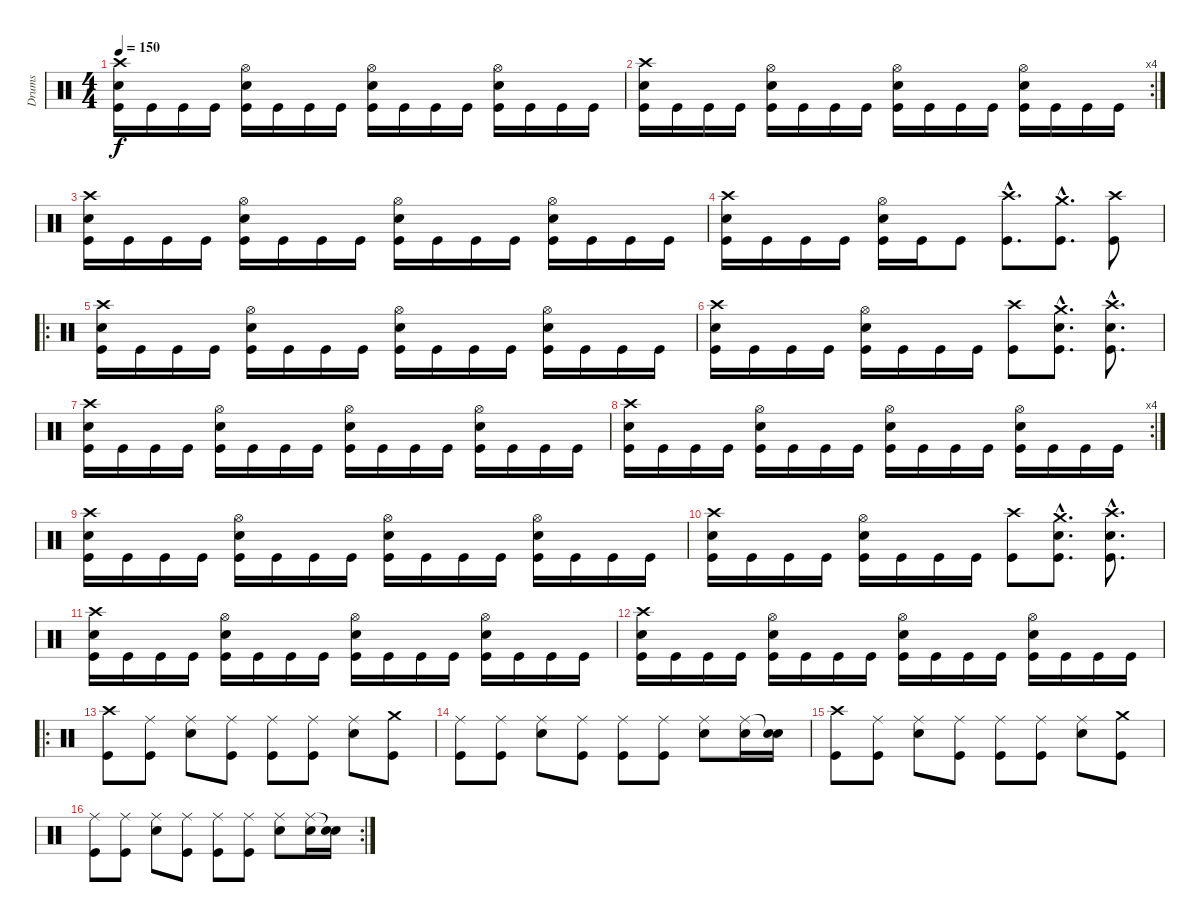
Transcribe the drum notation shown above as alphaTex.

\track ("Drums" "Drums") {instrument percussion}
\staff {score}
\articulation defaults
\ts (4 4)
\tempo 150
\clef neutral
\ks c
("Crash high (hit)" "Snare (hit) 2" "Kick (hit)").16{dy f} "Kick (hit)".16 "Kick (hit)".16 "Kick (hit)".16 ("Hi-Hat (open)" "Snare (hit) 2" "Kick (hit)").16 "Kick (hit)".16 "Kick (hit)".16 "Kick (hit)".16 ("Hi-Hat (open)" "Snare (hit) 2" "Kick (hit)").16 "Kick (hit)".16 "Kick (hit)".16 "Kick (hit)".16 ("Hi-Hat (open)" "Snare (hit) 2" "Kick (hit)").16 "Kick (hit)".16 "Kick (hit)".16 "Kick (hit)".16 |
\rc 4
("Crash high (hit)" "Snare (hit) 2" "Kick (hit)").16 "Kick (hit)".16 "Kick (hit)".16 "Kick (hit)".16 ("Hi-Hat (open)" "Snare (hit) 2" "Kick (hit)").16 "Kick (hit)".16 "Kick (hit)".16 "Kick (hit)".16 ("Hi-Hat (open)" "Snare (hit) 2" "Kick (hit)").16 "Kick (hit)".16 "Kick (hit)".16 "Kick (hit)".16 ("Hi-Hat (open)" "Snare (hit) 2" "Kick (hit)").16 "Kick (hit)".16 "Kick (hit)".16 "Kick (hit)".16 |
("Crash high (hit)" "Snare (hit) 2" "Kick (hit)").16 "Kick (hit)".16 "Kick (hit)".16 "Kick (hit)".16 ("Hi-Hat (open)" "Snare (hit) 2" "Kick (hit)").16 "Kick (hit)".16 "Kick (hit)".16 "Kick (hit)".16 ("Hi-Hat (open)" "Snare (hit) 2" "Kick (hit)").16 "Kick (hit)".16 "Kick (hit)".16 "Kick (hit)".16 ("Hi-Hat (open)" "Snare (hit) 2" "Kick (hit)").16 "Kick (hit)".16 "Kick (hit)".16 "Kick (hit)".16 |
("Crash high (hit)" "Snare (hit) 2" "Kick (hit)").16 "Kick (hit)".16 "Kick (hit)".16 "Kick (hit)".16 ("Hi-Hat (open)" "Snare (hit) 2" "Kick (hit)").16 "Kick (hit)".16 "Kick (hit)".8 ("Crash high (hit)"{hac} "Kick (hit)"{hac}).8{d} ("Crash medium (hit)"{hac} "Kick (hit)"{hac}).8{d} ("Crash high (hit)" "Kick (hit)").8 |
\ro
("Crash high (hit)" "Snare (hit) 2" "Kick (hit)").16 "Kick (hit)".16 "Kick (hit)".16 "Kick (hit)".16 ("Hi-Hat (open)" "Snare (hit) 2" "Kick (hit)").16 "Kick (hit)".16 "Kick (hit)".16 "Kick (hit)".16 ("Hi-Hat (open)" "Snare (hit) 2" "Kick (hit)").16 "Kick (hit)".16 "Kick (hit)".16 "Kick (hit)".16 ("Hi-Hat (open)" "Snare (hit) 2" "Kick (hit)").16 "Kick (hit)".16 "Kick (hit)".16 "Kick (hit)".16 |
("Crash high (hit)" "Snare (hit) 2" "Kick (hit)").16 "Kick (hit)".16 "Kick (hit)".16 "Kick (hit)".16 ("Hi-Hat (open)" "Snare (hit) 2" "Kick (hit)").16 "Kick (hit)".16 "Kick (hit)".16 "Kick (hit)".16 ("Crash high (hit)" "Kick (hit)").8 ("Crash medium (hit)"{hac} "Snare (hit) 2"{hac} "Kick (hit)"{hac}).8{d} ("Crash high (hit)"{hac} "Snare (hit) 2"{hac} "Kick (hit)"{hac}).8{d} |
("Crash high (hit)" "Snare (hit) 2" "Kick (hit)").16 "Kick (hit)".16 "Kick (hit)".16 "Kick (hit)".16 ("Hi-Hat (open)" "Snare (hit) 2" "Kick (hit)").16 "Kick (hit)".16 "Kick (hit)".16 "Kick (hit)".16 ("Hi-Hat (open)" "Snare (hit) 2" "Kick (hit)").16 "Kick (hit)".16 "Kick (hit)".16 "Kick (hit)".16 ("Hi-Hat (open)" "Snare (hit) 2" "Kick (hit)").16 "Kick (hit)".16 "Kick (hit)".16 "Kick (hit)".16 |
\rc 4
("Crash high (hit)" "Snare (hit) 2" "Kick (hit)").16 "Kick (hit)".16 "Kick (hit)".16 "Kick (hit)".16 ("Hi-Hat (open)" "Snare (hit) 2" "Kick (hit)").16 "Kick (hit)".16 "Kick (hit)".16 "Kick (hit)".16 ("Hi-Hat (open)" "Snare (hit) 2" "Kick (hit)").16 "Kick (hit)".16 "Kick (hit)".16 "Kick (hit)".16 ("Hi-Hat (open)" "Snare (hit) 2" "Kick (hit)").16 "Kick (hit)".16 "Kick (hit)".16 "Kick (hit)".16 |
("Crash high (hit)" "Snare (hit) 2" "Kick (hit)").16 "Kick (hit)".16 "Kick (hit)".16 "Kick (hit)".16 ("Hi-Hat (open)" "Snare (hit) 2" "Kick (hit)").16 "Kick (hit)".16 "Kick (hit)".16 "Kick (hit)".16 ("Hi-Hat (open)" "Snare (hit) 2" "Kick (hit)").16 "Kick (hit)".16 "Kick (hit)".16 "Kick (hit)".16 ("Hi-Hat (open)" "Snare (hit) 2" "Kick (hit)").16 "Kick (hit)".16 "Kick (hit)".16 "Kick (hit)".16 |
("Crash high (hit)" "Snare (hit) 2" "Kick (hit)").16 "Kick (hit)".16 "Kick (hit)".16 "Kick (hit)".16 ("Hi-Hat (open)" "Snare (hit) 2" "Kick (hit)").16 "Kick (hit)".16 "Kick (hit)".16 "Kick (hit)".16 ("Crash high (hit)" "Kick (hit)").8 ("Crash medium (hit)"{hac} "Snare (hit) 2"{hac} "Kick (hit)"{hac}).8{d} ("Crash high (hit)"{hac} "Snare (hit) 2"{hac} "Kick (hit)"{hac}).8{d} |
("Crash high (hit)" "Snare (hit) 2" "Kick (hit)").16 "Kick (hit)".16 "Kick (hit)".16 "Kick (hit)".16 ("Hi-Hat (open)" "Snare (hit) 2" "Kick (hit)").16 "Kick (hit)".16 "Kick (hit)".16 "Kick (hit)".16 ("Hi-Hat (open)" "Snare (hit) 2" "Kick (hit)").16 "Kick (hit)".16 "Kick (hit)".16 "Kick (hit)".16 ("Hi-Hat (open)" "Snare (hit) 2" "Kick (hit)").16 "Kick (hit)".16 "Kick (hit)".16 "Kick (hit)".16 |
("Crash high (hit)" "Snare (hit) 2" "Kick (hit)").16 "Kick (hit)".16 "Kick (hit)".16 "Kick (hit)".16 ("Hi-Hat (open)" "Snare (hit) 2" "Kick (hit)").16 "Kick (hit)".16 "Kick (hit)".16 "Kick (hit)".16 ("Hi-Hat (open)" "Snare (hit) 2" "Kick (hit)").16 "Kick (hit)".16 "Kick (hit)".16 "Kick (hit)".16 ("Hi-Hat (open)" "Snare (hit) 2" "Kick (hit)").16 "Kick (hit)".16 "Kick (hit)".16 "Kick (hit)".16 |
\ro
("Crash high (hit)" "Kick (hit)").8 ("Ride (middle)" "Kick (hit)").8 ("Ride (middle)" "Snare (hit) 2").8 ("Ride (middle)" "Kick (hit)").8 ("Ride (middle)" "Kick (hit)").8 ("Ride (middle)" "Kick (hit)").8 ("Ride (middle)" "Snare (hit) 2").8 ("Crash medium (hit)" "Kick (hit)").8 |
("Ride (middle)" "Kick (hit)").8 ("Ride (middle)" "Kick (hit)").8 ("Ride (middle)" "Snare (hit) 2").8 ("Ride (middle)" "Kick (hit)").8 ("Ride (middle)" "Kick (hit)").8 ("Ride (middle)" "Kick (hit)").8 ("Ride (middle)" "Snare (hit) 2").8 ("Ride (middle)" "Electric Snare (hit)").16 ("Snare (hit)"{t} "Electric Snare (hit)").16 |
("Crash high (hit)" "Kick (hit)").8 ("Ride (middle)" "Kick (hit)").8 ("Ride (middle)" "Snare (hit) 2").8 ("Ride (middle)" "Kick (hit)").8 ("Ride (middle)" "Kick (hit)").8 ("Ride (middle)" "Kick (hit)").8 ("Ride (middle)" "Snare (hit) 2").8 ("Crash medium (hit)" "Kick (hit)").8 |
\rc 2
("Ride (middle)" "Kick (hit)").8 ("Ride (middle)" "Kick (hit)").8 ("Ride (middle)" "Snare (hit) 2").8 ("Ride (middle)" "Kick (hit)").8 ("Ride (middle)" "Kick (hit)").8 ("Ride (middle)" "Kick (hit)").8 ("Ride (middle)" "Snare (hit) 2").8 ("Ride (middle)" "Electric Snare (hit)").16 ("Snare (hit)"{t} "Electric Snare (hit)").16
